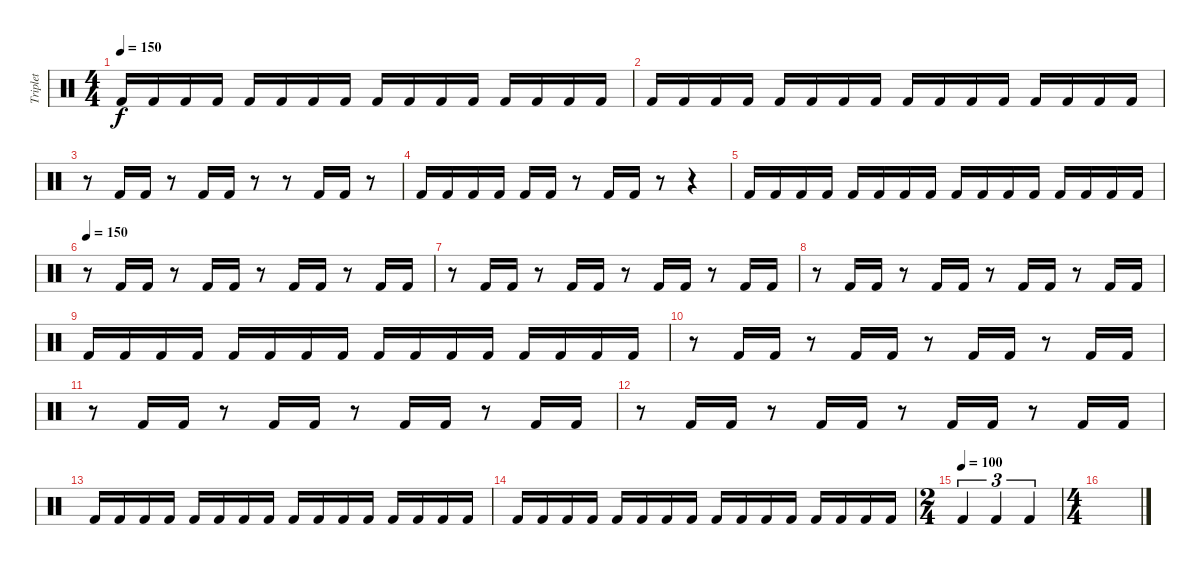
\track ("Triplet" "Triplet") {instrument percussion}
\staff {score}
\articulation defaults
\ts (4 4)
\tempo 150
\clef neutral
\ks c "Kick (hit) 2".16{dy f} "Kick (hit) 2".16 "Kick (hit) 2".16 "Kick (hit) 2".16 "Kick (hit) 2".16 "Kick (hit) 2".16 "Kick (hit) 2".16 "Kick (hit) 2".16 "Kick (hit) 2".16 "Kick (hit) 2".16 "Kick (hit) 2".16 "Kick (hit) 2".16 "Kick (hit) 2".16 "Kick (hit) 2".16 "Kick (hit) 2".16 "Kick (hit) 2".16
|
"Kick (hit) 2".16 "Kick (hit) 2".16 "Kick (hit) 2".16 "Kick (hit) 2".16 "Kick (hit) 2".16 "Kick (hit) 2".16 "Kick (hit) 2".16 "Kick (hit) 2".16 "Kick (hit) 2".16 "Kick (hit) 2".16 "Kick (hit) 2".16 "Kick (hit) 2".16 "Kick (hit) 2".16 "Kick (hit) 2".16 "Kick (hit) 2".16 "Kick (hit) 2".16 |
r.8 "Kick (hit) 2".16 "Kick (hit) 2".16 r.8 "Kick (hit) 2".16 "Kick (hit) 2".16 r.8 r.8 "Kick (hit) 2".16 "Kick (hit) 2".16 r.8 |
"Kick (hit) 2".16 "Kick (hit) 2".16 "Kick (hit) 2".16 "Kick (hit) 2".16 "Kick (hit) 2".16 "Kick (hit) 2".16 r.8 "Kick (hit) 2".16 "Kick (hit) 2".16 r.8 r.4 |
"Kick (hit) 2".16 "Kick (hit) 2".16 "Kick (hit) 2".16 "Kick (hit) 2".16 "Kick (hit) 2".16 "Kick (hit) 2".16 "Kick (hit) 2".16 "Kick (hit) 2".16 "Kick (hit) 2".16 "Kick (hit) 2".16 "Kick (hit) 2".16 "Kick (hit) 2".16 "Kick (hit) 2".16 "Kick (hit) 2".16 "Kick (hit) 2".16 "Kick (hit) 2".16 |
\tempo 150
r.8 "Kick (hit) 2".16 "Kick (hit) 2".16 r.8 "Kick (hit) 2".16 "Kick (hit) 2".16 r.8 "Kick (hit) 2".16 "Kick (hit) 2".16 r.8 "Kick (hit) 2".16 "Kick (hit) 2".16 |
r.8 "Kick (hit) 2".16 "Kick (hit) 2".16 r.8 "Kick (hit) 2".16 "Kick (hit) 2".16 r.8 "Kick (hit) 2".16 "Kick (hit) 2".16 r.8 "Kick (hit) 2".16 "Kick (hit) 2".16 |
r.8 "Kick (hit) 2".16 "Kick (hit) 2".16 r.8 "Kick (hit) 2".16 "Kick (hit) 2".16 r.8 "Kick (hit) 2".16 "Kick (hit) 2".16 r.8 "Kick (hit) 2".16 "Kick (hit) 2".16 |
"Kick (hit) 2".16 "Kick (hit) 2".16 "Kick (hit) 2".16 "Kick (hit) 2".16 "Kick (hit) 2".16 "Kick (hit) 2".16 "Kick (hit) 2".16 "Kick (hit) 2".16 "Kick (hit) 2".16 "Kick (hit) 2".16 "Kick (hit) 2".16 "Kick (hit) 2".16 "Kick (hit) 2".16 "Kick (hit) 2".16 "Kick (hit) 2".16 "Kick (hit) 2".16 |
r.8 "Kick (hit) 2".16 "Kick (hit) 2".16 r.8 "Kick (hit) 2".16 "Kick (hit) 2".16 r.8 "Kick (hit) 2".16 "Kick (hit) 2".16 r.8 "Kick (hit) 2".16 "Kick (hit) 2".16 |
r.8 "Kick (hit) 2".16 "Kick (hit) 2".16 r.8 "Kick (hit) 2".16 "Kick (hit) 2".16 r.8 "Kick (hit) 2".16 "Kick (hit) 2".16 r.8 "Kick (hit) 2".16 "Kick (hit) 2".16 |
r.8 "Kick (hit) 2".16 "Kick (hit) 2".16 r.8 "Kick (hit) 2".16 "Kick (hit) 2".16 r.8 "Kick (hit) 2".16 "Kick (hit) 2".16 r.8 "Kick (hit) 2".16 "Kick (hit) 2".16 |
"Kick (hit) 2".16 "Kick (hit) 2".16 "Kick (hit) 2".16 "Kick (hit) 2".16 "Kick (hit) 2".16 "Kick (hit) 2".16 "Kick (hit) 2".16 "Kick (hit) 2".16 "Kick (hit) 2".16 "Kick (hit) 2".16 "Kick (hit) 2".16 "Kick (hit) 2".16 "Kick (hit) 2".16 "Kick (hit) 2".16 "Kick (hit) 2".16 "Kick (hit) 2".16 |
"Kick (hit) 2".16 "Kick (hit) 2".16 "Kick (hit) 2".16 "Kick (hit) 2".16 "Kick (hit) 2".16 "Kick (hit) 2".16 "Kick (hit) 2".16 "Kick (hit) 2".16 "Kick (hit) 2".16 "Kick (hit) 2".16 "Kick (hit) 2".16 "Kick (hit) 2".16 "Kick (hit) 2".16 "Kick (hit) 2".16 "Kick (hit) 2".16 "Kick (hit) 2".16 |
\ts (2 4)
\tempo (100)
"Kick (hit) 2".4{tu (3 2)} "Kick (hit) 2".4{tu (3 2)} "Kick (hit) 2".4{tu (3 2)} |
\ts (4 4)
